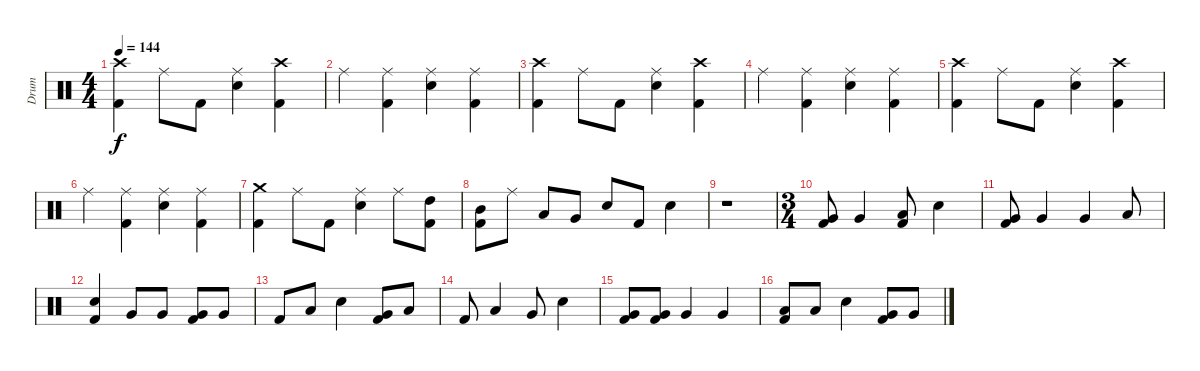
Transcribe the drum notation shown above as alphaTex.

\track ("Drum" "Drum") {instrument percussion}
\staff {score}
\articulation defaults
\ts (4 4)
\tempo 144
\clef neutral
\ks c
("Crash high (hit)" "Kick (hit) 2").4{dy f} "Ride (middle)".8 "Kick (hit) 2".8 ("Ride (middle)" "Electric Snare (hit)").4 ("Crash high (hit)" "Kick (hit) 2").4 |
"Ride (middle)".4 ("Ride (middle)" "Kick (hit) 2").4 ("Ride (middle)" "Electric Snare (hit)").4 ("Ride (middle)" "Kick (hit) 2").4 |
("Crash high (hit)" "Kick (hit) 2").4 "Ride (middle)".8 "Kick (hit) 2".8 ("Ride (middle)" "Electric Snare (hit)").4 ("Crash high (hit)" "Kick (hit) 2").4 |
"Ride (middle)".4 ("Ride (middle)" "Kick (hit) 2").4 ("Ride (middle)" "Electric Snare (hit)").4 ("Ride (middle)" "Kick (hit) 2").4 |
("Crash high (hit)" "Kick (hit) 2").4 "Ride (middle)".8 "Kick (hit) 2".8 ("Ride (middle)" "Electric Snare (hit)").4 ("Crash high (hit)" "Kick (hit) 2").4 |
"Ride (middle)".4 ("Ride (middle)" "Kick (hit) 2").4 ("Ride (middle)" "Electric Snare (hit)").4 ("Ride (middle)" "Kick (hit) 2").4 |
("Crash medium (hit)" "Kick (hit) 2").4 "Ride (middle)".8 "Kick (hit) 2".8 ("Ride (middle)" "Electric Snare (hit)").4 "Ride (middle)".8 ("High Tom (hit)" "Kick (hit) 2").8 |
("Mid Tom (hit)" "Kick (hit) 2").8 "Ride (middle)".8 "Low Tom (hit)".8 "Very Low Tom (hit)".8 "Electric Snare (hit)".8 "Kick (hit) 2".8 "Electric Snare (hit)".4 |
r.1 |
\ts (3 4)
("Very Low Tom (hit)" "Kick (hit) 2").8 "Very Low Tom (hit)".4 ("Low Tom (hit)" "Kick (hit) 2").8 "Electric Snare (hit)".4 |
("Very Low Tom (hit)" "Kick (hit) 2").8 "Very Low Tom (hit)".4 "Very Low Tom (hit)".4 "Low Tom (hit)".8 |
("Electric Snare (hit)" "Kick (hit) 2").4 "Very Low Tom (hit)".8 "Very Low Tom (hit)".8 ("Very Low Tom (hit)" "Kick (hit) 2").8 "Very Low Tom (hit)".8 |
"Kick (hit) 2".8 "Low Tom (hit)".8 "Electric Snare (hit)".4 ("Very Low Tom (hit)" "Kick (hit) 2").8 "Low Tom (hit)".8 |
"Kick (hit) 2".8 "Low Tom (hit)".4 "Very Low Tom (hit)".8 "Electric Snare (hit)".4 |
("Very Low Tom (hit)" "Kick (hit) 2").8 ("Very Low Tom (hit)" "Kick (hit) 2").8 "Very Low Tom (hit)".4 "Very Low Tom (hit)".4 |
("Low Tom (hit)" "Kick (hit) 2").8 "Low Tom (hit)".8 "Electric Snare (hit)".4 ("Very Low Tom (hit)" "Kick (hit) 2").8 "Very Low Tom (hit)".8
